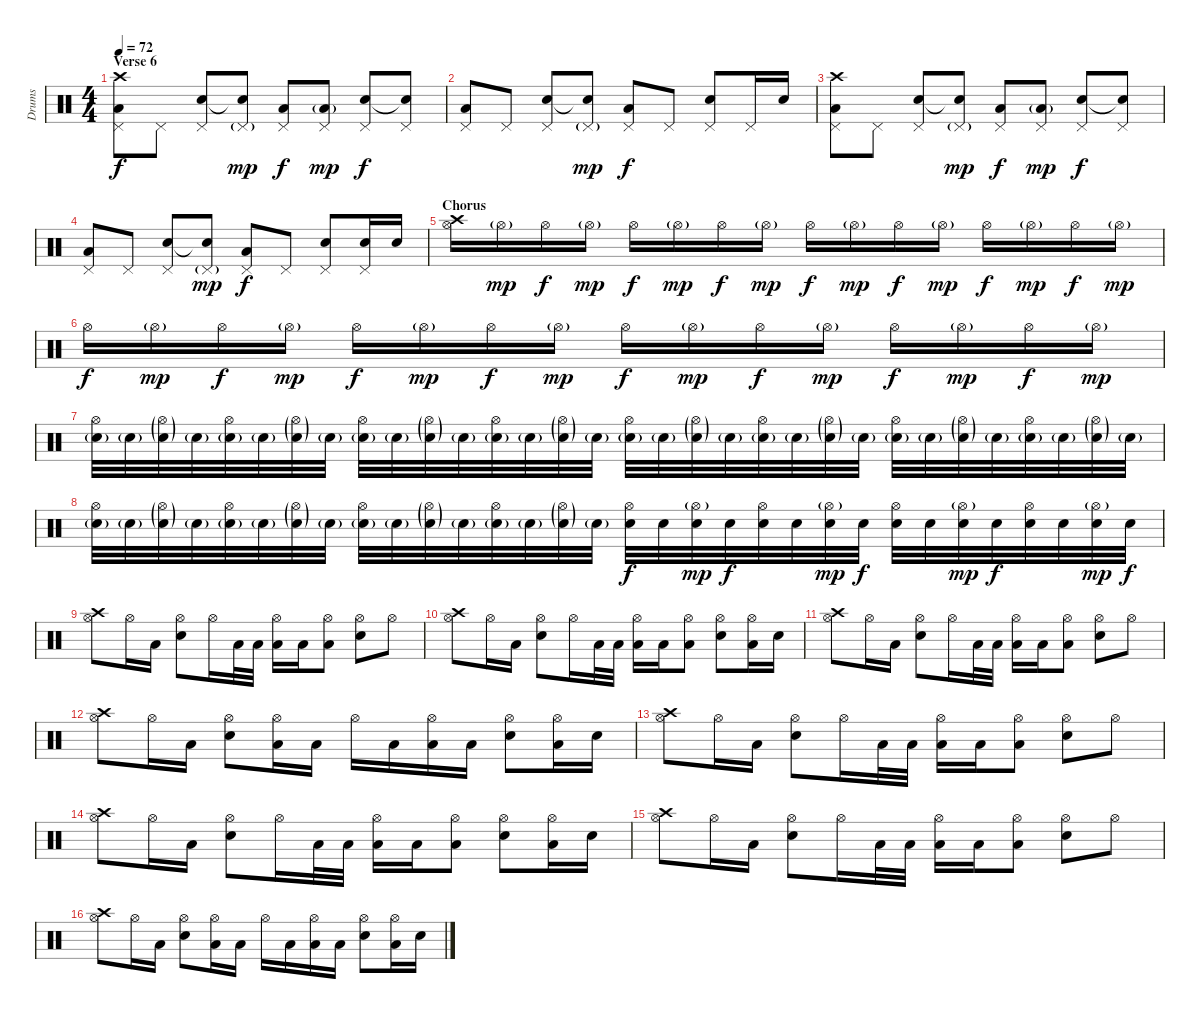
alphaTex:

\track ("Drums" "Drums") {instrument percussion}
\staff {score}
\articulation defaults
\ts (4 4)
\section ("" "Verse 6")
\tempo 72
\clef neutral
\ks c
("Crash high (hit)" "Pedal Hi-Hat (hit)" "Low Floor Tom (hit)").8{dy f} "Pedal Hi-Hat (hit)".8 ("Pedal Hi-Hat (hit)" "Electric Snare (hit)").8 ("Pedal Hi-Hat (hit)"{g} "Electric Snare (hit)"{t}).8{dy mp} ("Pedal Hi-Hat (hit)" "Low Floor Tom (hit)").8{dy f} ("Pedal Hi-Hat (hit)" "Low Floor Tom (hit)"{g}).8{dy mp} ("Pedal Hi-Hat (hit)" "Electric Snare (hit)").8{dy f} ("Pedal Hi-Hat (hit)" "Snare (hit)"{t}).8 |
("Pedal Hi-Hat (hit)" "Low Floor Tom (hit)").8 "Pedal Hi-Hat (hit)".8 ("Pedal Hi-Hat (hit)" "Electric Snare (hit)").8 ("Pedal Hi-Hat (hit)"{g} "Electric Snare (hit)"{t}).8{dy mp} ("Pedal Hi-Hat (hit)" "Low Floor Tom (hit)").8{dy f} "Pedal Hi-Hat (hit)".8 ("Pedal Hi-Hat (hit)" "Electric Snare (hit)").8 "Pedal Hi-Hat (hit)".16 "Electric Snare (hit)".16 |
("Crash high (hit)" "Pedal Hi-Hat (hit)" "Low Floor Tom (hit)").8 "Pedal Hi-Hat (hit)".8 ("Pedal Hi-Hat (hit)" "Electric Snare (hit)").8 ("Pedal Hi-Hat (hit)"{g} "Electric Snare (hit)"{t}).8{dy mp} ("Pedal Hi-Hat (hit)" "Low Floor Tom (hit)").8{dy f} ("Pedal Hi-Hat (hit)" "Low Floor Tom (hit)"{g}).8{dy mp} ("Pedal Hi-Hat (hit)" "Electric Snare (hit)").8{dy f} ("Pedal Hi-Hat (hit)" "Snare (hit)"{t}).8 |
("Pedal Hi-Hat (hit)" "Low Floor Tom (hit)").8 "Pedal Hi-Hat (hit)".8 ("Pedal Hi-Hat (hit)" "Electric Snare (hit)").8 ("Pedal Hi-Hat (hit)"{g} "Electric Snare (hit)"{t}).8{dy mp} ("Pedal Hi-Hat (hit)" "Low Floor Tom (hit)").8{dy f} "Pedal Hi-Hat (hit)".8 ("Pedal Hi-Hat (hit)" "Electric Snare (hit)").8 ("Pedal Hi-Hat (hit)" "Electric Snare (hit)").16 "Electric Snare (hit)".16 |
\section ("" "Chorus")
("Crash high (hit)" "Hi-Hat (open)").16 "Hi-Hat (open)"{g}.16{dy mp} "Hi-Hat (open)".16{dy f} "Hi-Hat (open)"{g}.16{dy mp} "Hi-Hat (open)".16{dy f} "Hi-Hat (open)"{g}.16{dy mp} "Hi-Hat (open)".16{dy f} "Hi-Hat (open)"{g}.16{dy mp} "Hi-Hat (open)".16{dy f} "Hi-Hat (open)"{g}.16{dy mp} "Hi-Hat (open)".16{dy f} "Hi-Hat (open)"{g}.16{dy mp} "Hi-Hat (open)".16{dy f} "Hi-Hat (open)"{g}.16{dy mp} "Hi-Hat (open)".16{dy f} "Hi-Hat (open)"{g}.16{dy mp} |
"Hi-Hat (open)".16{dy f} "Hi-Hat (open)"{g}.16{dy mp} "Hi-Hat (open)".16{dy f} "Hi-Hat (open)"{g}.16{dy mp} "Hi-Hat (open)".16{dy f} "Hi-Hat (open)"{g}.16{dy mp} "Hi-Hat (open)".16{dy f} "Hi-Hat (open)"{g}.16{dy mp} "Hi-Hat (open)".16{dy f} "Hi-Hat (open)"{g}.16{dy mp} "Hi-Hat (open)".16{dy f} "Hi-Hat (open)"{g}.16{dy mp} "Hi-Hat (open)".16{dy f} "Hi-Hat (open)"{g}.16{dy mp} "Hi-Hat (open)".16{dy f} "Hi-Hat (open)"{g}.16{dy mp} |
("Hi-Hat (open)" "Electric Snare (hit)"{g}).32 "Electric Snare (hit)"{g}.32 ("Hi-Hat (open)"{g} "Electric Snare (hit)"{g}).32 "Electric Snare (hit)"{g}.32 ("Hi-Hat (open)" "Electric Snare (hit)"{g}).32 "Electric Snare (hit)"{g}.32 ("Hi-Hat (open)"{g} "Electric Snare (hit)"{g}).32 "Electric Snare (hit)"{g}.32 ("Hi-Hat (open)" "Electric Snare (hit)"{g}).32 "Electric Snare (hit)"{g}.32 ("Hi-Hat (open)"{g} "Electric Snare (hit)"{g}).32 "Electric Snare (hit)"{g}.32 ("Hi-Hat (open)" "Electric Snare (hit)"{g}).32 "Electric Snare (hit)"{g}.32 ("Hi-Hat (open)"{g} "Electric Snare (hit)"{g}).32 "Electric Snare (hit)"{g}.32 ("Hi-Hat (open)" "Electric Snare (hit)"{g}).32 "Electric Snare (hit)"{g}.32 ("Hi-Hat (open)"{g} "Electric Snare (hit)"{g}).32 "Electric Snare (hit)"{g}.32 ("Hi-Hat (open)" "Electric Snare (hit)"{g}).32 "Electric Snare (hit)"{g}.32 ("Hi-Hat (open)"{g} "Electric Snare (hit)"{g}).32 "Electric Snare (hit)"{g}.32 ("Hi-Hat (open)" "Electric Snare (hit)"{g}).32 "Electric Snare (hit)"{g}.32 ("Hi-Hat (open)"{g} "Electric Snare (hit)"{g}).32 "Electric Snare (hit)"{g}.32 ("Hi-Hat (open)" "Electric Snare (hit)"{g}).32 "Electric Snare (hit)"{g}.32 ("Hi-Hat (open)"{g} "Electric Snare (hit)"{g}).32 "Electric Snare (hit)"{g}.32 |
("Hi-Hat (open)" "Electric Snare (hit)"{g}).32 "Electric Snare (hit)"{g}.32 ("Hi-Hat (open)"{g} "Electric Snare (hit)"{g}).32 "Electric Snare (hit)"{g}.32 ("Hi-Hat (open)" "Electric Snare (hit)"{g}).32 "Electric Snare (hit)"{g}.32 ("Hi-Hat (open)"{g} "Electric Snare (hit)"{g}).32 "Electric Snare (hit)"{g}.32 ("Hi-Hat (open)" "Electric Snare (hit)"{g}).32 "Electric Snare (hit)"{g}.32 ("Hi-Hat (open)"{g} "Electric Snare (hit)"{g}).32 "Electric Snare (hit)"{g}.32 ("Hi-Hat (open)" "Electric Snare (hit)"{g}).32 "Electric Snare (hit)"{g}.32 ("Hi-Hat (open)"{g} "Electric Snare (hit)"{g}).32 "Electric Snare (hit)"{g}.32 ("Hi-Hat (open)" "Electric Snare (hit)").32{dy f} "Electric Snare (hit)".32 ("Hi-Hat (open)"{g} "Electric Snare (hit)").32{dy mp} "Electric Snare (hit)".32{dy f} ("Hi-Hat (open)" "Electric Snare (hit)").32 "Electric Snare (hit)".32 ("Hi-Hat (open)"{g} "Electric Snare (hit)").32{dy mp} "Electric Snare (hit)".32{dy f} ("Hi-Hat (open)" "Electric Snare (hit)").32 "Electric Snare (hit)".32 ("Hi-Hat (open)"{g} "Electric Snare (hit)").32{dy mp} "Electric Snare (hit)".32{dy f} ("Hi-Hat (open)" "Electric Snare (hit)").32 "Electric Snare (hit)".32 ("Hi-Hat (open)"{g} "Electric Snare (hit)").32{dy mp} "Electric Snare (hit)".32{dy f} |
("Crash high (hit)" "Hi-Hat (open)").8 "Hi-Hat (open)".16 "Low Tom (hit)".16 ("Hi-Hat (open)" "Electric Snare (hit)").8 "Hi-Hat (open)".16 "Low Tom (hit)".32 "Low Tom (hit)".32 ("Hi-Hat (open)" "Low Tom (hit)").16 "Low Tom (hit)".16 ("Hi-Hat (open)" "Low Tom (hit)").8 ("Hi-Hat (open)" "Electric Snare (hit)").8 "Hi-Hat (open)".8 |
("Crash high (hit)" "Hi-Hat (open)").8 "Hi-Hat (open)".16 "Low Tom (hit)".16 ("Hi-Hat (open)" "Electric Snare (hit)").8 "Hi-Hat (open)".16 "Low Tom (hit)".32 "Low Tom (hit)".32 ("Hi-Hat (open)" "Low Tom (hit)").16 "Low Tom (hit)".16 ("Hi-Hat (open)" "Low Tom (hit)").8 ("Hi-Hat (open)" "Electric Snare (hit)").8 ("Hi-Hat (open)" "Low Tom (hit)").16 "Electric Snare (hit)".16 |
("Crash high (hit)" "Hi-Hat (open)").8 "Hi-Hat (open)".16 "Low Tom (hit)".16 ("Hi-Hat (open)" "Electric Snare (hit)").8 "Hi-Hat (open)".16 "Low Tom (hit)".32 "Low Tom (hit)".32 ("Hi-Hat (open)" "Low Tom (hit)").16 "Low Tom (hit)".16 ("Hi-Hat (open)" "Low Tom (hit)").8 ("Hi-Hat (open)" "Electric Snare (hit)").8 "Hi-Hat (open)".8 |
("Crash high (hit)" "Hi-Hat (open)").8 "Hi-Hat (open)".16 "Low Tom (hit)".16 ("Hi-Hat (open)" "Electric Snare (hit)").8 ("Hi-Hat (open)" "Low Tom (hit)").16 "Low Tom (hit)".16 "Hi-Hat (open)".16 "Low Tom (hit)".16 ("Hi-Hat (open)" "Low Tom (hit)").16 "Low Tom (hit)".16 ("Hi-Hat (open)" "Electric Snare (hit)").8 ("Hi-Hat (open)" "Low Tom (hit)").16 "Electric Snare (hit)".16 |
("Crash high (hit)" "Hi-Hat (open)").8 "Hi-Hat (open)".16 "Low Tom (hit)".16 ("Hi-Hat (open)" "Electric Snare (hit)").8 "Hi-Hat (open)".16 "Low Tom (hit)".32 "Low Tom (hit)".32 ("Hi-Hat (open)" "Low Tom (hit)").16 "Low Tom (hit)".16 ("Hi-Hat (open)" "Low Tom (hit)").8 ("Hi-Hat (open)" "Electric Snare (hit)").8 "Hi-Hat (open)".8 |
("Crash high (hit)" "Hi-Hat (open)").8 "Hi-Hat (open)".16 "Low Tom (hit)".16 ("Hi-Hat (open)" "Electric Snare (hit)").8 "Hi-Hat (open)".16 "Low Tom (hit)".32 "Low Tom (hit)".32 ("Hi-Hat (open)" "Low Tom (hit)").16 "Low Tom (hit)".16 ("Hi-Hat (open)" "Low Tom (hit)").8 ("Hi-Hat (open)" "Electric Snare (hit)").8 ("Hi-Hat (open)" "Low Tom (hit)").16 "Electric Snare (hit)".16 |
("Crash high (hit)" "Hi-Hat (open)").8 "Hi-Hat (open)".16 "Low Tom (hit)".16 ("Hi-Hat (open)" "Electric Snare (hit)").8 "Hi-Hat (open)".16 "Low Tom (hit)".32 "Low Tom (hit)".32 ("Hi-Hat (open)" "Low Tom (hit)").16 "Low Tom (hit)".16 ("Hi-Hat (open)" "Low Tom (hit)").8 ("Hi-Hat (open)" "Electric Snare (hit)").8 "Hi-Hat (open)".8 |
("Crash high (hit)" "Hi-Hat (open)").8 "Hi-Hat (open)".16 "Low Tom (hit)".16 ("Hi-Hat (open)" "Electric Snare (hit)").8 ("Hi-Hat (open)" "Low Tom (hit)").16 "Low Tom (hit)".16 "Hi-Hat (open)".16 "Low Tom (hit)".16 ("Hi-Hat (open)" "Low Tom (hit)").16 "Low Tom (hit)".16 ("Hi-Hat (open)" "Electric Snare (hit)").8 ("Hi-Hat (open)" "Low Tom (hit)").16 "Electric Snare (hit)".16
